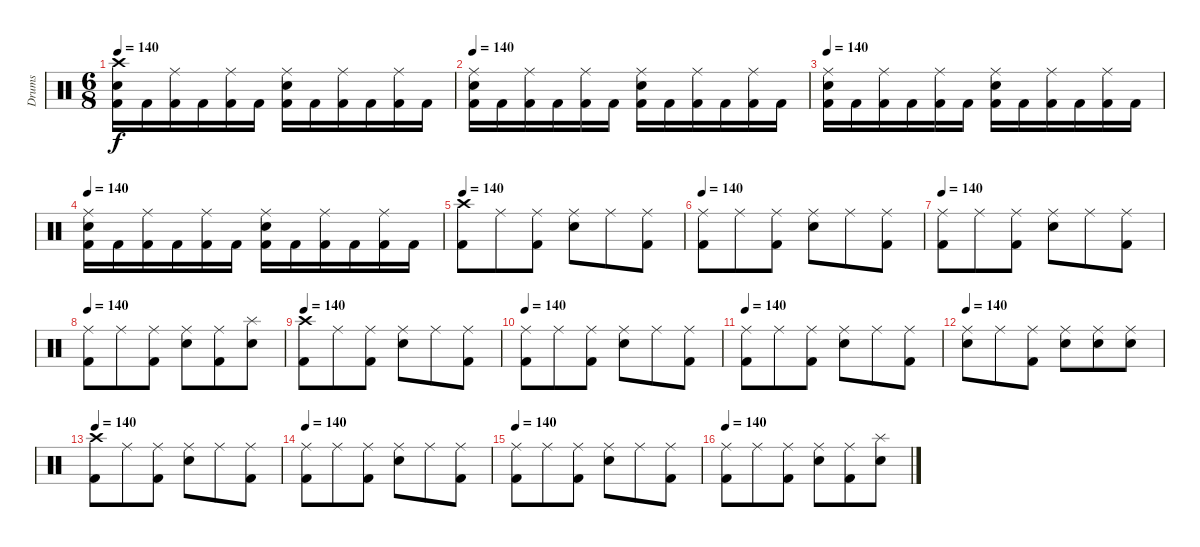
\track ("Drums" "Drums") {instrument percussion}
\staff {score}
\articulation defaults
\ts (6 8)
\tempo 140
\clef neutral
\ks c
("Kick (hit) 2" "Electric Snare (hit)" "Crash high (hit)").16{dy f} "Kick (hit) 2".16 ("Kick (hit) 2" "Ride (middle)").16 "Kick (hit) 2".16 ("Kick (hit) 2" "Ride (middle)").16 "Kick (hit) 2".16 ("Kick (hit) 2" "Electric Snare (hit)" "Ride (middle)").16 "Kick (hit) 2".16 ("Kick (hit) 2" "Ride (middle)").16 "Kick (hit) 2".16 ("Kick (hit) 2" "Ride (middle)").16 "Kick (hit) 2".16 |
\tempo 140
("Kick (hit) 2" "Electric Snare (hit)" "Ride (middle)").16 "Kick (hit) 2".16 ("Kick (hit) 2" "Ride (middle)").16 "Kick (hit) 2".16 ("Kick (hit) 2" "Ride (middle)").16 "Kick (hit) 2".16 ("Kick (hit) 2" "Electric Snare (hit)" "Ride (middle)").16 "Kick (hit) 2".16 ("Kick (hit) 2" "Ride (middle)").16 "Kick (hit) 2".16 ("Kick (hit) 2" "Ride (middle)").16 "Kick (hit) 2".16 |
\tempo 140
("Kick (hit) 2" "Electric Snare (hit)" "Ride (middle)").16 "Kick (hit) 2".16 ("Kick (hit) 2" "Ride (middle)").16 "Kick (hit) 2".16 ("Kick (hit) 2" "Ride (middle)").16 "Kick (hit) 2".16 ("Kick (hit) 2" "Electric Snare (hit)" "Ride (middle)").16 "Kick (hit) 2".16 ("Kick (hit) 2" "Ride (middle)").16 "Kick (hit) 2".16 ("Kick (hit) 2" "Ride (middle)").16 "Kick (hit) 2".16 |
\tempo 140
("Kick (hit) 2" "Electric Snare (hit)" "Ride (middle)").16 "Kick (hit) 2".16 ("Kick (hit) 2" "Ride (middle)").16 "Kick (hit) 2".16 ("Kick (hit) 2" "Ride (middle)").16 "Kick (hit) 2".16 ("Kick (hit) 2" "Electric Snare (hit)" "Ride (middle)").16 "Kick (hit) 2".16 ("Kick (hit) 2" "Ride (middle)").16 "Kick (hit) 2".16 ("Kick (hit) 2" "Ride (middle)").16 "Kick (hit) 2".16 |
\tempo 140
("Kick (hit) 2" "Crash high (hit)").8 "Ride (middle)".8 ("Kick (hit) 2" "Ride (middle)").8 ("Electric Snare (hit)" "Ride (middle)").8 "Ride (middle)".8 ("Kick (hit) 2" "Ride (middle)").8 |
\tempo 140
("Kick (hit) 2" "Ride (middle)").8 "Ride (middle)".8 ("Kick (hit) 2" "Ride (middle)").8 ("Electric Snare (hit)" "Ride (middle)").8 "Ride (middle)".8 ("Kick (hit) 2" "Ride (middle)").8 |
\tempo 140
("Kick (hit) 2" "Ride (middle)").8 "Ride (middle)".8 ("Kick (hit) 2" "Ride (middle)").8 ("Electric Snare (hit)" "Ride (middle)").8 "Ride (middle)".8 ("Kick (hit) 2" "Ride (middle)").8 |
\tempo 140
("Kick (hit) 2" "Ride (middle)").8 "Ride (middle)".8 ("Kick (hit) 2" "Ride (middle)").8 ("Electric Snare (hit)" "Ride (middle)").8 ("Kick (hit) 2" "Ride (middle)").8 ("Electric Snare (hit)" "Splash (hit)").8 |
\tempo 140
("Kick (hit) 2" "Crash high (hit)").8 "Ride (middle)".8 ("Kick (hit) 2" "Ride (middle)").8 ("Electric Snare (hit)" "Ride (middle)").8 "Ride (middle)".8 ("Kick (hit) 2" "Ride (middle)").8 |
\tempo 140
("Kick (hit) 2" "Ride (middle)").8 "Ride (middle)".8 ("Kick (hit) 2" "Ride (middle)").8 ("Electric Snare (hit)" "Ride (middle)").8 "Ride (middle)".8 ("Kick (hit) 2" "Ride (middle)").8 |
\tempo 140
("Kick (hit) 2" "Ride (middle)").8 "Ride (middle)".8 ("Kick (hit) 2" "Ride (middle)").8 ("Electric Snare (hit)" "Ride (middle)").8 "Ride (middle)".8 ("Kick (hit) 2" "Ride (middle)").8 |
\tempo 140
("Electric Snare (hit)" "Ride (middle)").8 "Ride (middle)".8 ("Kick (hit) 2" "Ride (middle)").8 ("Electric Snare (hit)" "Ride (middle)").8 ("Electric Snare (hit)" "Ride (middle)").8 ("Electric Snare (hit)" "Ride (middle)").8 |
\tempo 140
("Kick (hit) 2" "Crash high (hit)").8 "Ride (middle)".8 ("Kick (hit) 2" "Ride (middle)").8 ("Electric Snare (hit)" "Ride (middle)").8 "Ride (middle)".8 ("Kick (hit) 2" "Ride (middle)").8 |
\tempo 140
("Kick (hit) 2" "Ride (middle)").8 "Ride (middle)".8 ("Kick (hit) 2" "Ride (middle)").8 ("Electric Snare (hit)" "Ride (middle)").8 "Ride (middle)".8 ("Kick (hit) 2" "Ride (middle)").8 |
\tempo 140
("Kick (hit) 2" "Ride (middle)").8 "Ride (middle)".8 ("Kick (hit) 2" "Ride (middle)").8 ("Electric Snare (hit)" "Ride (middle)").8 "Ride (middle)".8 ("Kick (hit) 2" "Ride (middle)").8 |
\tempo 140
("Kick (hit) 2" "Ride (middle)").8 "Ride (middle)".8 ("Kick (hit) 2" "Ride (middle)").8 ("Electric Snare (hit)" "Ride (middle)").8 ("Kick (hit) 2" "Ride (middle)").8 ("Electric Snare (hit)" "Splash (hit)").8
